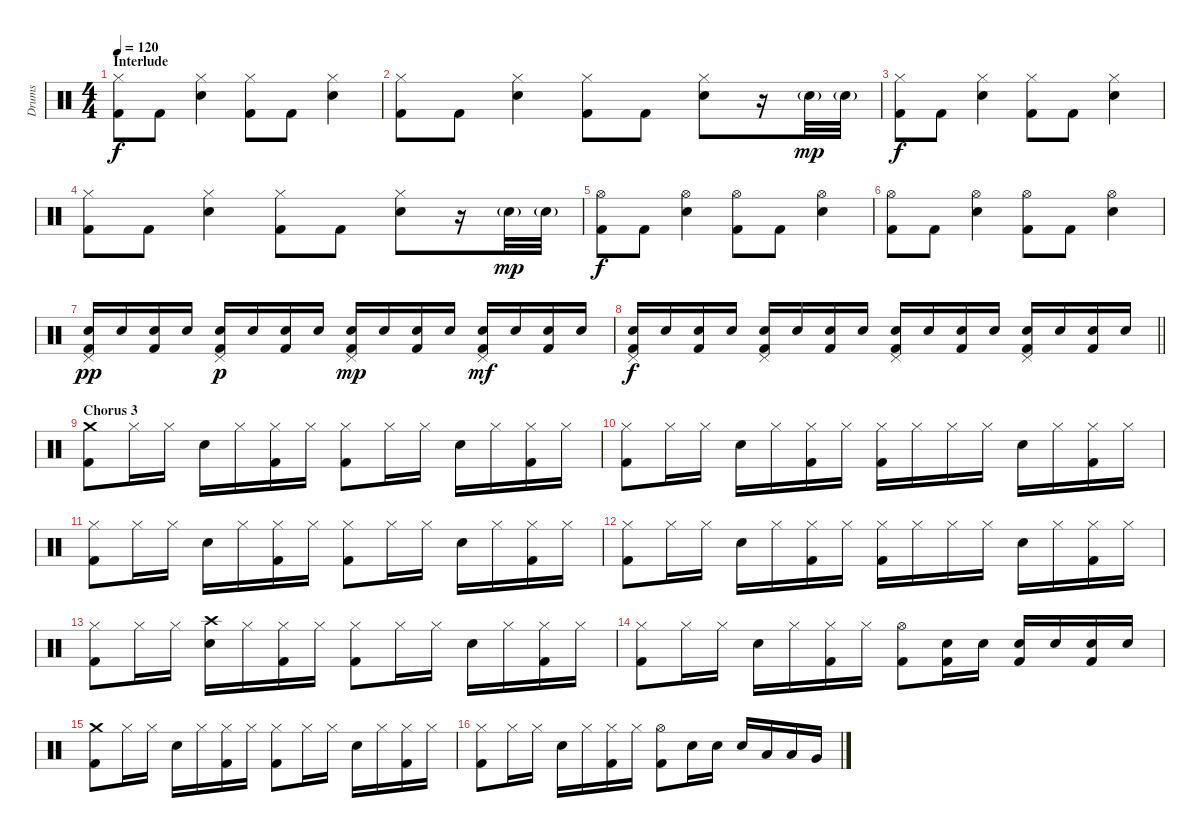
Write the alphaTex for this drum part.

\track ("Drums" "Drums") {instrument percussion}
\staff {score}
\articulation defaults
\ts (4 4)
\section ("" "Interlude")
\tempo 120
\clef neutral
\ks c
("Hi-Hat (closed)" "Kick (hit) 2").8{dy f} "Kick (hit) 2".8 ("Hi-Hat (closed)" "Electric Snare (hit)").4 ("Hi-Hat (closed)" "Kick (hit) 2").8 "Kick (hit) 2".8 ("Hi-Hat (closed)" "Electric Snare (hit)").4 |
("Hi-Hat (closed)" "Kick (hit) 2").8 "Kick (hit) 2".8 ("Hi-Hat (closed)" "Electric Snare (hit)").4 ("Hi-Hat (closed)" "Kick (hit) 2").8 "Kick (hit) 2".8 ("Hi-Hat (closed)" "Electric Snare (hit)").8 r.16 "Electric Snare (hit)"{g}.32{dy mp} "Electric Snare (hit)"{g}.32 |
("Hi-Hat (closed)" "Kick (hit) 2").8{dy f} "Kick (hit) 2".8 ("Hi-Hat (closed)" "Electric Snare (hit)").4 ("Hi-Hat (closed)" "Kick (hit) 2").8 "Kick (hit) 2".8 ("Hi-Hat (closed)" "Electric Snare (hit)").4 |
("Hi-Hat (closed)" "Kick (hit) 2").8 "Kick (hit) 2".8 ("Hi-Hat (closed)" "Electric Snare (hit)").4 ("Hi-Hat (closed)" "Kick (hit) 2").8 "Kick (hit) 2".8 ("Hi-Hat (closed)" "Electric Snare (hit)").8 r.16 "Electric Snare (hit)"{g}.32{dy mp} "Electric Snare (hit)"{g}.32 |
("Hi-Hat (open)" "Kick (hit) 2").8{dy f} "Kick (hit) 2".8 ("Hi-Hat (open)" "Electric Snare (hit)").4 ("Hi-Hat (open)" "Kick (hit) 2").8 "Kick (hit) 2".8 ("Hi-Hat (open)" "Electric Snare (hit)").4 |
("Hi-Hat (open)" "Kick (hit) 2").8 "Kick (hit) 2".8 ("Hi-Hat (open)" "Electric Snare (hit)").4 ("Hi-Hat (open)" "Kick (hit) 2").8 "Kick (hit) 2".8 ("Hi-Hat (open)" "Electric Snare (hit)").4 |
("Pedal Hi-Hat (hit)" "Electric Snare (hit)" "Kick (hit) 2").16{dy pp} "Electric Snare (hit)".16 ("Electric Snare (hit)" "Kick (hit) 2").16 "Electric Snare (hit)".16 ("Pedal Hi-Hat (hit)" "Electric Snare (hit)" "Kick (hit) 2").16{dy p} "Electric Snare (hit)".16 ("Electric Snare (hit)" "Kick (hit) 2").16 "Electric Snare (hit)".16 ("Pedal Hi-Hat (hit)" "Electric Snare (hit)" "Kick (hit) 2").16{dy mp} "Electric Snare (hit)".16 ("Electric Snare (hit)" "Kick (hit) 2").16 "Electric Snare (hit)".16 ("Pedal Hi-Hat (hit)" "Electric Snare (hit)" "Kick (hit) 2").16{dy mf} "Electric Snare (hit)".16 ("Electric Snare (hit)" "Kick (hit) 2").16 "Electric Snare (hit)".16 |
\barLineRight lightlight
("Pedal Hi-Hat (hit)" "Electric Snare (hit)" "Kick (hit) 2").16{dy f} "Electric Snare (hit)".16 ("Electric Snare (hit)" "Kick (hit) 2").16 "Electric Snare (hit)".16 ("Pedal Hi-Hat (hit)" "Electric Snare (hit)" "Kick (hit) 2").16 "Electric Snare (hit)".16 ("Electric Snare (hit)" "Kick (hit) 2").16 "Electric Snare (hit)".16 ("Pedal Hi-Hat (hit)" "Electric Snare (hit)" "Kick (hit) 2").16 "Electric Snare (hit)".16 ("Electric Snare (hit)" "Kick (hit) 2").16 "Electric Snare (hit)".16 ("Pedal Hi-Hat (hit)" "Electric Snare (hit)" "Kick (hit) 2").16 "Electric Snare (hit)".16 ("Electric Snare (hit)" "Kick (hit) 2").16 "Electric Snare (hit)".16 |
\section ("" "Chorus 3")
("Crash medium (hit)" "Kick (hit) 2").8 "Hi-Hat (closed)".16 "Hi-Hat (closed)".16 "Electric Snare (hit)".16 "Hi-Hat (closed)".16 ("Hi-Hat (closed)" "Kick (hit) 2").16 "Hi-Hat (closed)".16 ("Hi-Hat (closed)" "Kick (hit) 2").8 "Hi-Hat (closed)".16 "Hi-Hat (closed)".16 "Electric Snare (hit)".16 "Hi-Hat (closed)".16 ("Hi-Hat (closed)" "Kick (hit) 2").16 "Hi-Hat (closed)".16 |
("Hi-Hat (closed)" "Kick (hit) 2").8 "Hi-Hat (closed)".16 "Hi-Hat (closed)".16 "Electric Snare (hit)".16 "Hi-Hat (closed)".16 ("Hi-Hat (closed)" "Kick (hit) 2").16 "Hi-Hat (closed)".16 ("Hi-Hat (closed)" "Kick (hit) 2").16 "Hi-Hat (closed)".16 "Hi-Hat (closed)".16 "Hi-Hat (closed)".16 "Electric Snare (hit)".16 "Hi-Hat (closed)".16 ("Hi-Hat (closed)" "Kick (hit) 2").16 "Hi-Hat (closed)".16 |
("Hi-Hat (closed)" "Kick (hit) 2").8 "Hi-Hat (closed)".16 "Hi-Hat (closed)".16 "Electric Snare (hit)".16 "Hi-Hat (closed)".16 ("Hi-Hat (closed)" "Kick (hit) 2").16 "Hi-Hat (closed)".16 ("Hi-Hat (closed)" "Kick (hit) 2").8 "Hi-Hat (closed)".16 "Hi-Hat (closed)".16 "Electric Snare (hit)".16 "Hi-Hat (closed)".16 ("Hi-Hat (closed)" "Kick (hit) 2").16 "Hi-Hat (closed)".16 |
("Hi-Hat (closed)" "Kick (hit) 2").8 "Hi-Hat (closed)".16 "Hi-Hat (closed)".16 "Electric Snare (hit)".16 "Hi-Hat (closed)".16 ("Hi-Hat (closed)" "Kick (hit) 2").16 "Hi-Hat (closed)".16 ("Hi-Hat (closed)" "Kick (hit) 2").16 "Hi-Hat (closed)".16 "Hi-Hat (closed)".16 "Hi-Hat (closed)".16 "Electric Snare (hit)".16 "Hi-Hat (closed)".16 ("Hi-Hat (closed)" "Kick (hit) 2").16 "Hi-Hat (closed)".16 |
("Hi-Hat (closed)" "Kick (hit) 2").8 "Hi-Hat (closed)".16 "Hi-Hat (closed)".16 ("Crash high (hit)" "Electric Snare (hit)").16 "Hi-Hat (closed)".16 ("Hi-Hat (closed)" "Kick (hit) 2").16 "Hi-Hat (closed)".16 ("Hi-Hat (closed)" "Kick (hit) 2").8 "Hi-Hat (closed)".16 "Hi-Hat (closed)".16 "Electric Snare (hit)".16 "Hi-Hat (closed)".16 ("Hi-Hat (closed)" "Kick (hit) 2").16 "Hi-Hat (closed)".16 |
("Hi-Hat (closed)" "Kick (hit) 2").8 "Hi-Hat (closed)".16 "Hi-Hat (closed)".16 "Electric Snare (hit)".16 "Hi-Hat (closed)".16 ("Hi-Hat (closed)" "Kick (hit) 2").16 "Hi-Hat (closed)".16 ("Hi-Hat (open)" "Kick (hit) 2").8 ("Electric Snare (hit)" "Kick (hit) 2").16 "Electric Snare (hit)".16 ("Electric Snare (hit)" "Kick (hit) 2").16 "Electric Snare (hit)".16 ("Electric Snare (hit)" "Kick (hit) 2").16 "Electric Snare (hit)".16 |
("Crash medium (hit)" "Kick (hit) 2").8 "Hi-Hat (closed)".16 "Hi-Hat (closed)".16 "Electric Snare (hit)".16 "Hi-Hat (closed)".16 ("Hi-Hat (closed)" "Kick (hit) 2").16 "Hi-Hat (closed)".16 ("Hi-Hat (closed)" "Kick (hit) 2").8 "Hi-Hat (closed)".16 "Hi-Hat (closed)".16 "Electric Snare (hit)".16 "Hi-Hat (closed)".16 ("Hi-Hat (closed)" "Kick (hit) 2").16 "Hi-Hat (closed)".16 |
("Hi-Hat (closed)" "Kick (hit) 2").8 "Hi-Hat (closed)".16 "Hi-Hat (closed)".16 "Electric Snare (hit)".16 "Hi-Hat (closed)".16 ("Hi-Hat (closed)" "Kick (hit) 2").16 "Hi-Hat (closed)".16 ("Hi-Hat (open)" "Kick (hit) 2").8 "Electric Snare (hit)".16 "Electric Snare (hit)".16 "Electric Snare (hit)".16 "Low Tom (hit)".16 "Low Tom (hit)".16 "Very Low Tom (hit)".16
